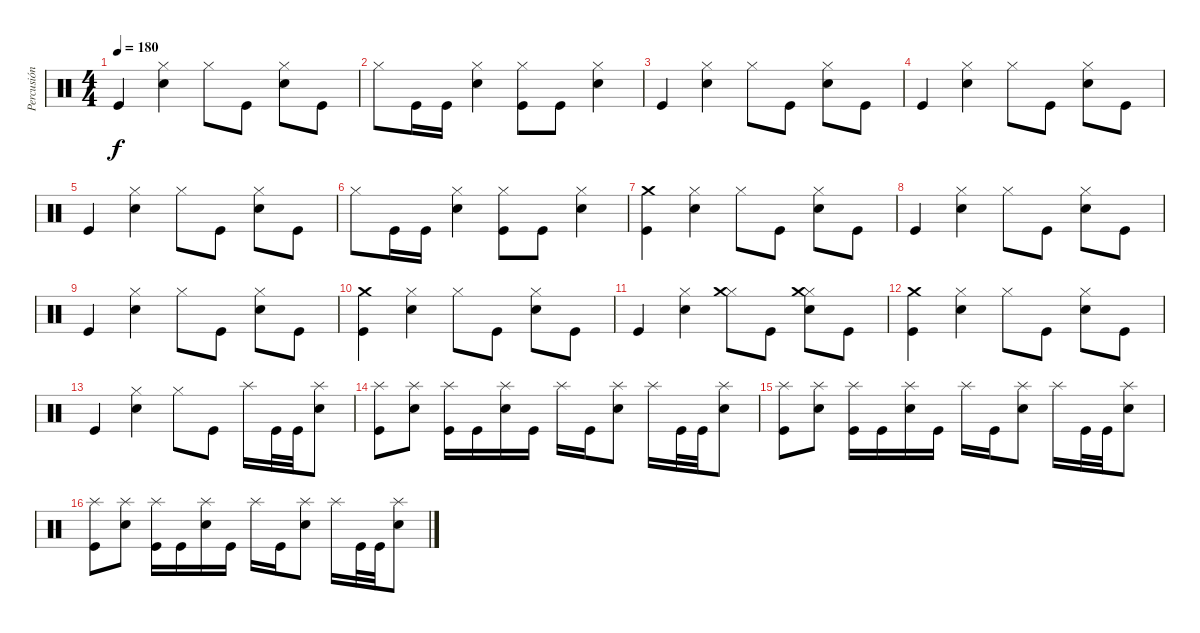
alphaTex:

\track ("Percusión" "Percusión") {instrument percussion}
\staff {score}
\articulation defaults
\ts (4 4)
\tempo 180
\clef neutral
\ks c "Kick (hit)".4{dy f}
("Snare (hit) 2" "Hi-Hat (closed)").4 "Hi-Hat (closed)".8 "Kick (hit)".8 ("Snare (hit) 2" "Hi-Hat (closed)").8 "Kick (hit)".8 |
"Hi-Hat (closed)".8 "Kick (hit)".16 "Kick (hit)".16 ("Snare (hit) 2" "Hi-Hat (closed)").4 ("Kick (hit)" "Hi-Hat (closed)").8 "Kick (hit)".8 ("Snare (hit) 2" "Hi-Hat (closed)").4 |
"Kick (hit)".4 ("Snare (hit) 2" "Hi-Hat (closed)").4 "Hi-Hat (closed)".8 "Kick (hit)".8 ("Snare (hit) 2" "Hi-Hat (closed)").8 "Kick (hit)".8 |
"Kick (hit)".4 ("Snare (hit) 2" "Hi-Hat (closed)").4 "Hi-Hat (closed)".8 "Kick (hit)".8 ("Snare (hit) 2" "Hi-Hat (closed)").8 "Kick (hit)".8 |
"Kick (hit)".4 ("Snare (hit) 2" "Hi-Hat (closed)").4 "Hi-Hat (closed)".8 "Kick (hit)".8 ("Snare (hit) 2" "Hi-Hat (closed)").8 "Kick (hit)".8 |
"Hi-Hat (closed)".8 "Kick (hit)".16 "Kick (hit)".16 ("Snare (hit) 2" "Hi-Hat (closed)").4 ("Kick (hit)" "Hi-Hat (closed)").8 "Kick (hit)".8 ("Snare (hit) 2" "Hi-Hat (closed)").4 |
("Kick (hit)" "Crash medium (hit)").4 ("Snare (hit) 2" "Hi-Hat (closed)").4 "Hi-Hat (closed)".8 "Kick (hit)".8 ("Snare (hit) 2" "Hi-Hat (closed)").8 "Kick (hit)".8 |
"Kick (hit)".4 ("Snare (hit) 2" "Hi-Hat (closed)").4 "Hi-Hat (closed)".8 "Kick (hit)".8 ("Snare (hit) 2" "Hi-Hat (closed)").8 "Kick (hit)".8 |
"Kick (hit)".4 ("Snare (hit) 2" "Hi-Hat (closed)").4 "Hi-Hat (closed)".8 "Kick (hit)".8 ("Snare (hit) 2" "Hi-Hat (closed)").8 "Kick (hit)".8 |
("Kick (hit)" "Crash medium (hit)").4 ("Snare (hit) 2" "Hi-Hat (closed)").4 "Hi-Hat (closed)".8 "Kick (hit)".8 ("Snare (hit) 2" "Hi-Hat (closed)").8 "Kick (hit)".8 |
"Kick (hit)".4 ("Snare (hit) 2" "Hi-Hat (closed)").4 ("Hi-Hat (closed)" "Crash medium (hit)").8 "Kick (hit)".8 ("Snare (hit) 2" "Hi-Hat (closed)" "Crash medium (hit)").8 "Kick (hit)".8 |
("Kick (hit)" "Crash medium (hit)").4 ("Snare (hit) 2" "Hi-Hat (closed)").4 "Hi-Hat (closed)".8 "Kick (hit)".8 ("Snare (hit) 2" "Hi-Hat (closed)").8 "Kick (hit)".8 |
"Kick (hit)".4 ("Snare (hit) 2" "Hi-Hat (closed)").4 "Hi-Hat (closed)".8 "Kick (hit)".8 "Splash (hit)".16 "Kick (hit)".32 "Kick (hit)".32 ("Splash (hit)" "Electric Snare (hit)").8 |
("Splash (hit)" "Kick (hit)").8 ("Splash (hit)" "Electric Snare (hit)").8 ("Splash (hit)" "Kick (hit)").16 "Kick (hit)".16 ("Splash (hit)" "Electric Snare (hit)").16 "Kick (hit)".16 "Splash (hit)".16 "Kick (hit)".16 ("Splash (hit)" "Electric Snare (hit)").8 "Splash (hit)".16 "Kick (hit)".32 "Kick (hit)".32 ("Splash (hit)" "Electric Snare (hit)").8 |
("Splash (hit)" "Kick (hit)").8 ("Splash (hit)" "Electric Snare (hit)").8 ("Splash (hit)" "Kick (hit)").16 "Kick (hit)".16 ("Splash (hit)" "Electric Snare (hit)").16 "Kick (hit)".16 "Splash (hit)".16 "Kick (hit)".16 ("Splash (hit)" "Electric Snare (hit)").8 "Splash (hit)".16 "Kick (hit)".32 "Kick (hit)".32 ("Splash (hit)" "Electric Snare (hit)").8 |
("Splash (hit)" "Kick (hit)").8 ("Splash (hit)" "Electric Snare (hit)").8 ("Splash (hit)" "Kick (hit)").16 "Kick (hit)".16 ("Splash (hit)" "Electric Snare (hit)").16 "Kick (hit)".16 "Splash (hit)".16 "Kick (hit)".16 ("Splash (hit)" "Electric Snare (hit)").8 "Splash (hit)".16 "Kick (hit)".32 "Kick (hit)".32 ("Splash (hit)" "Electric Snare (hit)").8
